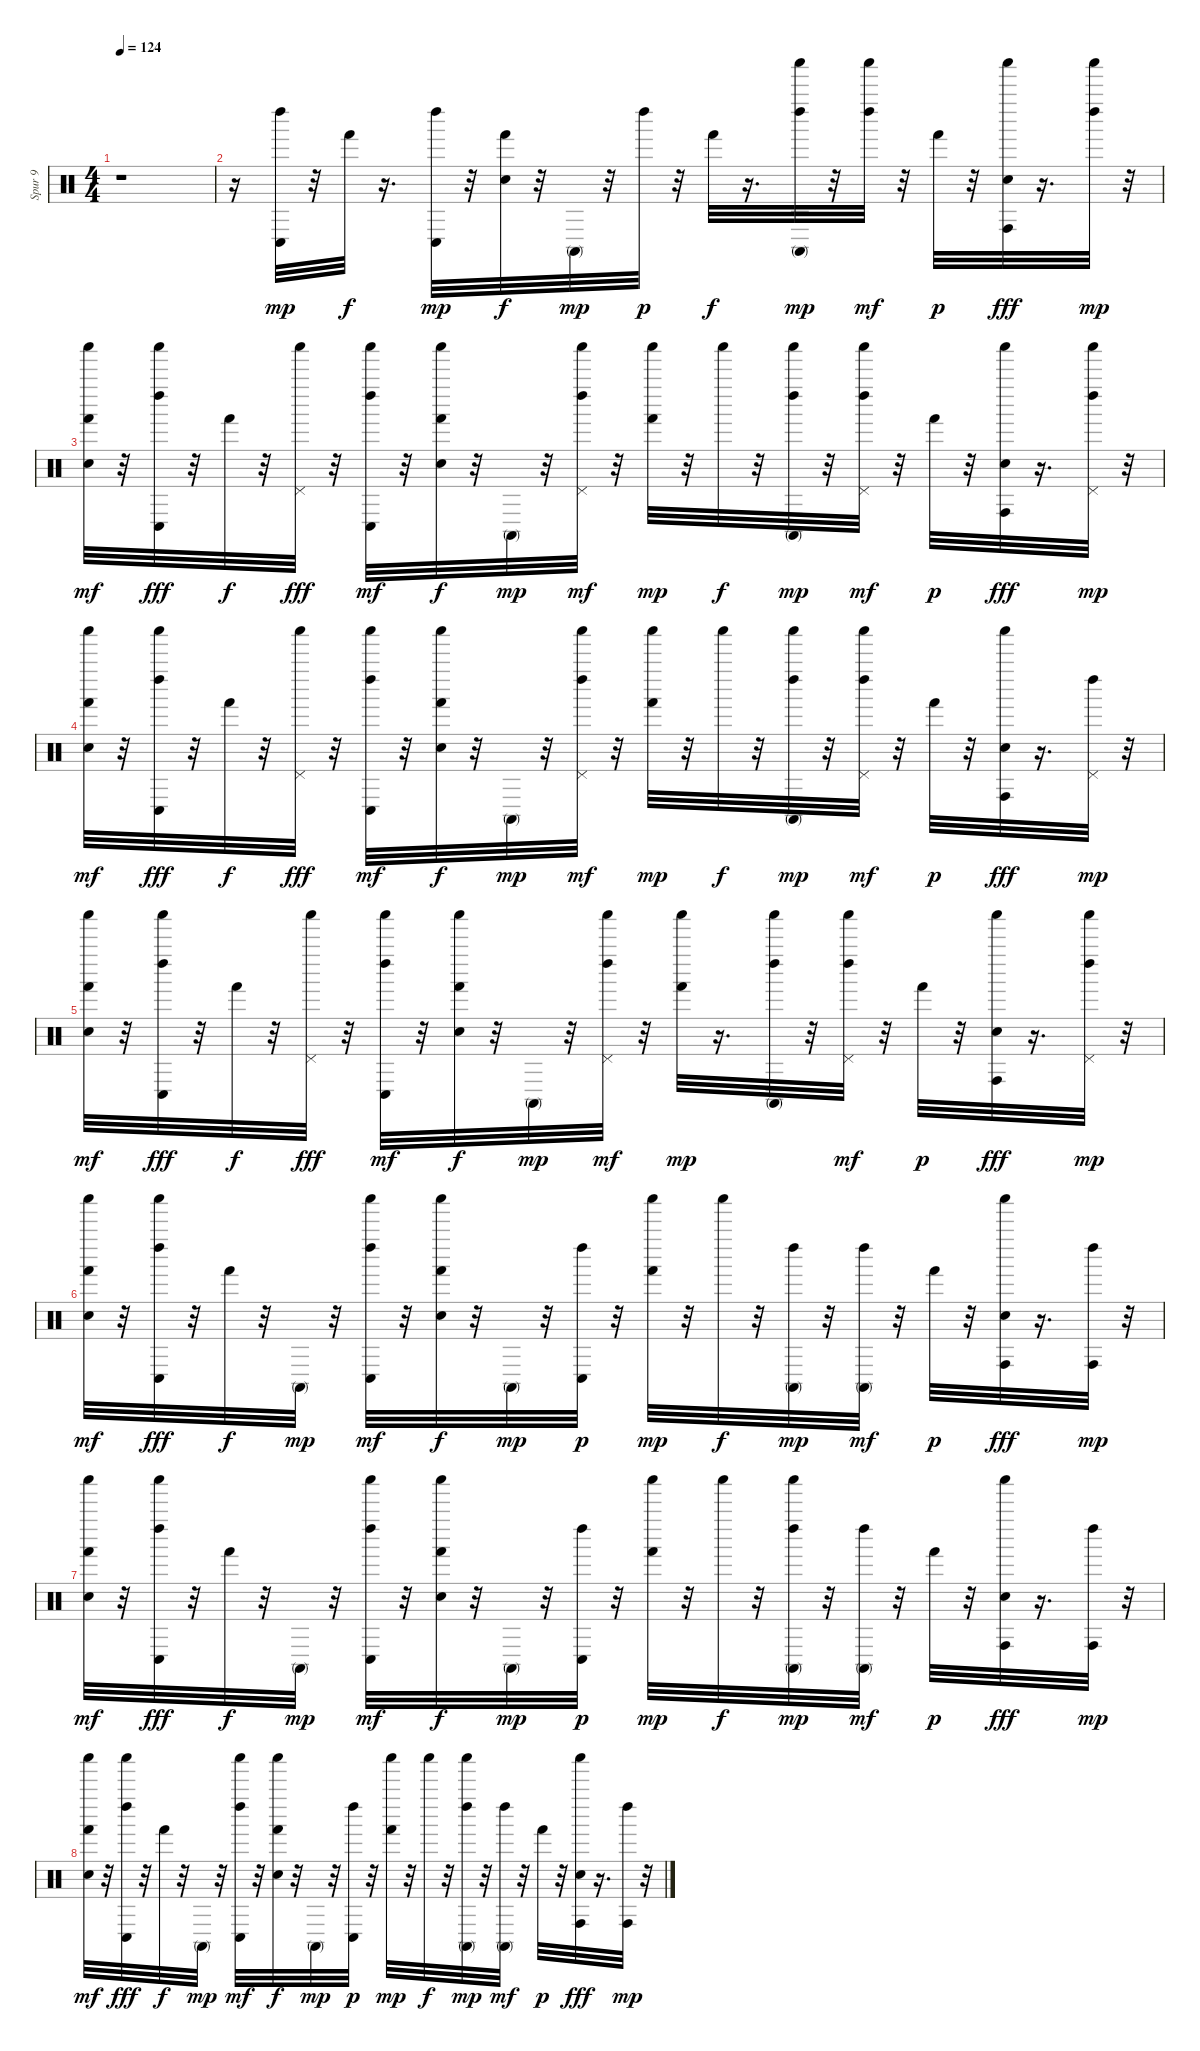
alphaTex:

\track ("Spur 9" "Spur 9") {instrument percussion}
\staff {score}
\articulation defaults
\ts (4 4)
\tempo 124
\clef neutral
\ks c
r.1{dy mp} |
r.16 ("Conga low (hit)" "Left Maraca (hit)").32 r.32 "Hand (hit)".32{dy f} r.16{d} ("Conga low (hit)" "Left Maraca (hit)").32{dy mp} r.32 ("Electric Snare (hit)" "Hand (hit)").32{dy f} r.32 "Conga high (mute)".32{dy mp} r.32 "Left Maraca (hit)".32{dy p} r.32 "Hand (hit)".32{dy f} r.16{d} ("Conga high (mute)" "Left Maraca (hit)" "Shaker (hit)").32{dy mp} r.32 ("Left Maraca (hit)" "Shaker (hit)").32{dy mf} r.32 "Hand (hit)".32{dy p} r.32 ("Electric Snare (hit)" "Conga high (hit)" "Shaker (hit)").32{dy fff} r.16{d} ("Left Maraca (hit)" "Shaker (hit)").32{dy mp} r.32 |
("Electric Snare (hit)" "Hand (hit)" "Shaker (hit)").32{dy mf} r.32 ("Conga low (hit)" "Left Maraca (hit)" "Shaker (hit)").32{dy fff} r.32 "Hand (hit)".32{dy f} r.32 ("Pedal Hi-Hat (hit)" "Shaker (hit)").32{dy fff} r.32 ("Conga low (hit)" "Left Maraca (hit)" "Shaker (hit)").32{dy mf} r.32 ("Electric Snare (hit)" "Hand (hit)" "Shaker (hit)").32{dy f} r.32 "Conga high (mute)".32{dy mp} r.32 ("Pedal Hi-Hat (hit)" "Left Maraca (hit)" "Shaker (hit)").32{dy mf} r.32 ("Hand (hit)" "Shaker (hit)").32{dy mp} r.32 "Shaker (hit)".32{dy f} r.32 ("Conga high (mute)" "Left Maraca (hit)" "Shaker (hit)").32{dy mp} r.32 ("Pedal Hi-Hat (hit)" "Left Maraca (hit)" "Shaker (hit)").32{dy mf} r.32 "Hand (hit)".32{dy p} r.32 ("Electric Snare (hit)" "Conga high (hit)" "Shaker (hit)").32{dy fff} r.16{d} ("Pedal Hi-Hat (hit)" "Left Maraca (hit)" "Shaker (hit)").32{dy mp} r.32 |
("Electric Snare (hit)" "Hand (hit)" "Shaker (hit)").32{dy mf} r.32 ("Conga low (hit)" "Left Maraca (hit)" "Shaker (hit)").32{dy fff} r.32 "Hand (hit)".32{dy f} r.32 ("Pedal Hi-Hat (hit)" "Shaker (hit)").32{dy fff} r.32 ("Conga low (hit)" "Left Maraca (hit)" "Shaker (hit)").32{dy mf} r.32 ("Electric Snare (hit)" "Hand (hit)" "Shaker (hit)").32{dy f} r.32 "Conga high (mute)".32{dy mp} r.32 ("Pedal Hi-Hat (hit)" "Left Maraca (hit)" "Shaker (hit)").32{dy mf} r.32 ("Hand (hit)" "Shaker (hit)").32{dy mp} r.32 "Shaker (hit)".32{dy f} r.32 ("Conga high (mute)" "Left Maraca (hit)" "Shaker (hit)").32{dy mp} r.32 ("Pedal Hi-Hat (hit)" "Left Maraca (hit)" "Shaker (hit)").32{dy mf} r.32 "Hand (hit)".32{dy p} r.32 ("Electric Snare (hit)" "Conga high (hit)" "Shaker (hit)").32{dy fff} r.16{d} ("Pedal Hi-Hat (hit)" "Left Maraca (hit)").32{dy mp} r.32 |
("Electric Snare (hit)" "Hand (hit)" "Shaker (hit)").32{dy mf} r.32 ("Conga low (hit)" "Left Maraca (hit)" "Shaker (hit)").32{dy fff} r.32 "Hand (hit)".32{dy f} r.32 ("Pedal Hi-Hat (hit)" "Shaker (hit)").32{dy fff} r.32 ("Conga low (hit)" "Left Maraca (hit)" "Shaker (hit)").32{dy mf} r.32 ("Electric Snare (hit)" "Hand (hit)" "Shaker (hit)").32{dy f} r.32 "Conga high (mute)".32{dy mp} r.32 ("Pedal Hi-Hat (hit)" "Left Maraca (hit)" "Shaker (hit)").32{dy mf} r.32 ("Hand (hit)" "Shaker (hit)").32{dy mp} r.16{d} ("Conga high (mute)" "Left Maraca (hit)" "Shaker (hit)").32 r.32 ("Pedal Hi-Hat (hit)" "Left Maraca (hit)" "Shaker (hit)").32{dy mf} r.32 "Hand (hit)".32{dy p} r.32 ("Electric Snare (hit)" "Conga high (hit)" "Shaker (hit)").32{dy fff} r.16{d} ("Pedal Hi-Hat (hit)" "Left Maraca (hit)" "Shaker (hit)").32{dy mp} r.32 |
("Electric Snare (hit)" "Hand (hit)" "Shaker (hit)").32{dy mf} r.32 ("Conga low (hit)" "Left Maraca (hit)" "Shaker (hit)").32{dy fff} r.32 "Hand (hit)".32{dy f} r.32 "Conga high (mute)".32{dy mp} r.32 ("Conga low (hit)" "Left Maraca (hit)" "Shaker (hit)").32{dy mf} r.32 ("Electric Snare (hit)" "Hand (hit)" "Shaker (hit)").32{dy f} r.32 "Conga high (mute)".32{dy mp} r.32 ("Conga low (hit)" "Left Maraca (hit)").32{dy p} r.32 ("Hand (hit)" "Shaker (hit)").32{dy mp} r.32 "Shaker (hit)".32{dy f} r.32 ("Conga high (mute)" "Left Maraca (hit)").32{dy mp} r.32 ("Conga high (mute)" "Left Maraca (hit)").32{dy mf} r.32 "Hand (hit)".32{dy p} r.32 ("Electric Snare (hit)" "Conga high (hit)" "Shaker (hit)").32{dy fff} r.16{d} ("Conga high (hit)" "Left Maraca (hit)").32{dy mp} r.32 |
("Electric Snare (hit)" "Hand (hit)" "Shaker (hit)").32{dy mf} r.32 ("Conga low (hit)" "Left Maraca (hit)" "Shaker (hit)").32{dy fff} r.32 "Hand (hit)".32{dy f} r.32 "Conga high (mute)".32{dy mp} r.32 ("Conga low (hit)" "Left Maraca (hit)" "Shaker (hit)").32{dy mf} r.32 ("Electric Snare (hit)" "Hand (hit)" "Shaker (hit)").32{dy f} r.32 "Conga high (mute)".32{dy mp} r.32 ("Conga low (hit)" "Left Maraca (hit)").32{dy p} r.32 ("Hand (hit)" "Shaker (hit)").32{dy mp} r.32 "Shaker (hit)".32{dy f} r.32 ("Conga high (mute)" "Left Maraca (hit)" "Shaker (hit)").32{dy mp} r.32 ("Conga high (mute)" "Left Maraca (hit)").32{dy mf} r.32 "Hand (hit)".32{dy p} r.32 ("Electric Snare (hit)" "Conga high (hit)" "Shaker (hit)").32{dy fff} r.16{d} ("Conga high (hit)" "Left Maraca (hit)").32{dy mp} r.32 |
("Electric Snare (hit)" "Hand (hit)" "Shaker (hit)").32{dy mf} r.32 ("Conga low (hit)" "Left Maraca (hit)" "Shaker (hit)").32{dy fff} r.32 "Hand (hit)".32{dy f} r.32 "Conga high (mute)".32{dy mp} r.32 ("Conga low (hit)" "Left Maraca (hit)" "Shaker (hit)").32{dy mf} r.32 ("Electric Snare (hit)" "Hand (hit)" "Shaker (hit)").32{dy f} r.32 "Conga high (mute)".32{dy mp} r.32 ("Conga low (hit)" "Left Maraca (hit)").32{dy p} r.32 ("Hand (hit)" "Shaker (hit)").32{dy mp} r.32 "Shaker (hit)".32{dy f} r.32 ("Conga high (mute)" "Left Maraca (hit)" "Shaker (hit)").32{dy mp} r.32 ("Conga high (mute)" "Left Maraca (hit)").32{dy mf} r.32 "Hand (hit)".32{dy p} r.32 ("Electric Snare (hit)" "Conga high (hit)" "Shaker (hit)").32{dy fff} r.16{d} ("Conga high (hit)" "Left Maraca (hit)").32{dy mp} r.32
